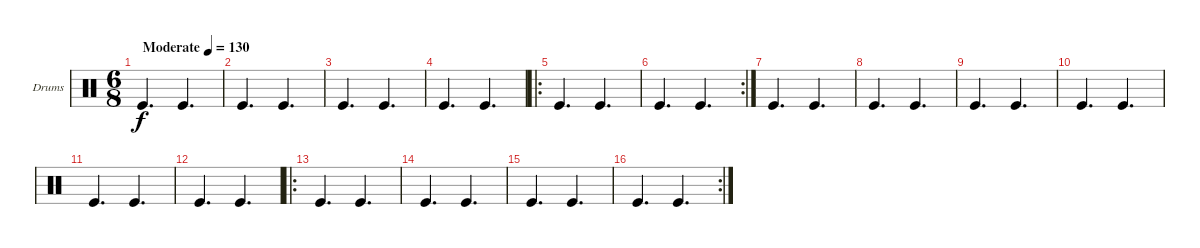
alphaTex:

\bracketExtendMode groupsimilarinstruments
\firstSystemTrackNameOrientation horizontal
\otherSystemsTrackNameOrientation horizontal
\track ("Drumkit" "Drums") {instrument percussion}
\staff {score}
\articulation defaults
\ts (6 8)
\beaming (8 3 3)
\tempo (130 "Moderate")
\clef neutral
\ks c "Kick (hit)".4{d dy f} "Kick (hit)".4{d}
|
"Kick (hit)".4{d} "Kick (hit)".4{d} |
"Kick (hit)".4{d} "Kick (hit)".4{d} |
"Kick (hit)".4{d} "Kick (hit)".4{d} |
\ro "Kick (hit)".4{d} "Kick (hit)".4{d}
|
\rc 2 "Kick (hit)".4{d} "Kick (hit)".4{d}
|
"Kick (hit)".4{d} "Kick (hit)".4{d} |
"Kick (hit)".4{d} "Kick (hit)".4{d} |
"Kick (hit)".4{d} "Kick (hit)".4{d} |
"Kick (hit)".4{d} "Kick (hit)".4{d} |
"Kick (hit)".4{d} "Kick (hit)".4{d} |
"Kick (hit)".4{d} "Kick (hit)".4{d} |
\ro "Kick (hit)".4{d} "Kick (hit)".4{d}
|
"Kick (hit)".4{d} "Kick (hit)".4{d} |
"Kick (hit)".4{d} "Kick (hit)".4{d} |
\rc 2 "Kick (hit)".4{d} "Kick (hit)".4{d}
